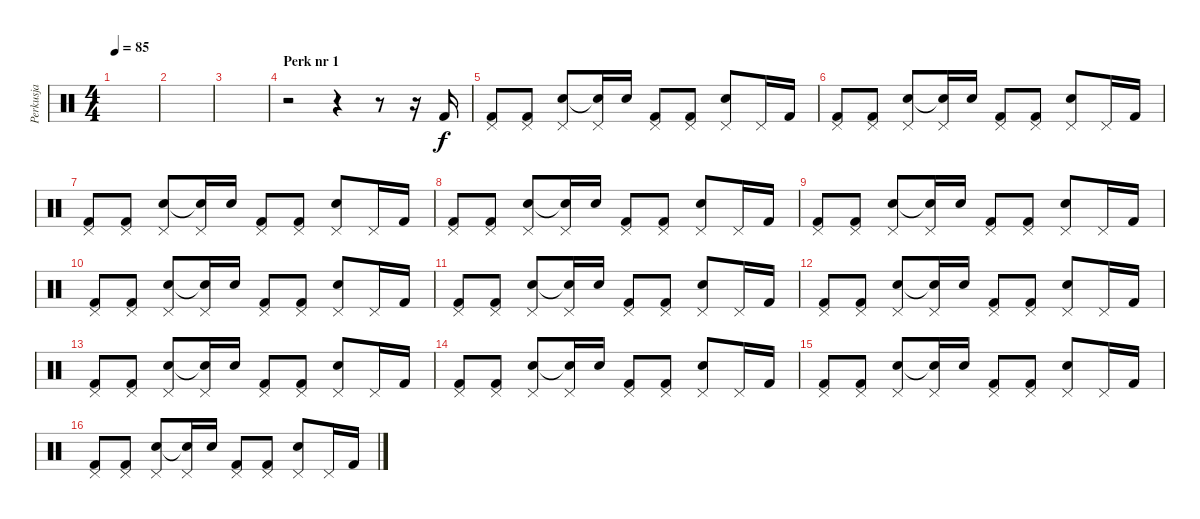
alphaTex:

\track ("Perkusja" "Perkusja") {instrument percussion}
\staff {score}
\articulation defaults
\ts (4 4)
\tempo 85
\clef neutral
\ks c
|
|
|
\section ("" "Perk nr 1")
r.2 r.4 r.8 r.16 "Kick (hit) 2".16 |
("Kick (hit) 2" "Pedal Hi-Hat (hit)").8 ("Kick (hit) 2" "Pedal Hi-Hat (hit)").8 ("Snare (hit) 2" "Pedal Hi-Hat (hit)").8 ("Snare (hit)"{t} "Pedal Hi-Hat (hit)").16 "Snare (hit) 2".16 ("Kick (hit) 2" "Pedal Hi-Hat (hit)").8 ("Kick (hit) 2" "Pedal Hi-Hat (hit)").8 ("Snare (hit) 2" "Pedal Hi-Hat (hit)").8 "Pedal Hi-Hat (hit)".16 "Kick (hit) 2".16 |
("Kick (hit) 2" "Pedal Hi-Hat (hit)").8 ("Kick (hit) 2" "Pedal Hi-Hat (hit)").8 ("Snare (hit) 2" "Pedal Hi-Hat (hit)").8 ("Snare (hit)"{t} "Pedal Hi-Hat (hit)").16 "Snare (hit) 2".16 ("Kick (hit) 2" "Pedal Hi-Hat (hit)").8 ("Kick (hit) 2" "Pedal Hi-Hat (hit)").8 ("Snare (hit) 2" "Pedal Hi-Hat (hit)").8 "Pedal Hi-Hat (hit)".16 "Kick (hit) 2".16 |
("Kick (hit) 2" "Pedal Hi-Hat (hit)").8 ("Kick (hit) 2" "Pedal Hi-Hat (hit)").8 ("Snare (hit) 2" "Pedal Hi-Hat (hit)").8 ("Snare (hit)"{t} "Pedal Hi-Hat (hit)").16 "Snare (hit) 2".16 ("Kick (hit) 2" "Pedal Hi-Hat (hit)").8 ("Kick (hit) 2" "Pedal Hi-Hat (hit)").8 ("Snare (hit) 2" "Pedal Hi-Hat (hit)").8 "Pedal Hi-Hat (hit)".16 "Kick (hit) 2".16 |
("Kick (hit) 2" "Pedal Hi-Hat (hit)").8 ("Kick (hit) 2" "Pedal Hi-Hat (hit)").8 ("Snare (hit) 2" "Pedal Hi-Hat (hit)").8 ("Snare (hit)"{t} "Pedal Hi-Hat (hit)").16 "Snare (hit) 2".16 ("Kick (hit) 2" "Pedal Hi-Hat (hit)").8 ("Kick (hit) 2" "Pedal Hi-Hat (hit)").8 ("Snare (hit) 2" "Pedal Hi-Hat (hit)").8 "Pedal Hi-Hat (hit)".16 "Kick (hit) 2".16 |
("Kick (hit) 2" "Pedal Hi-Hat (hit)").8 ("Kick (hit) 2" "Pedal Hi-Hat (hit)").8 ("Snare (hit) 2" "Pedal Hi-Hat (hit)").8 ("Snare (hit)"{t} "Pedal Hi-Hat (hit)").16 "Snare (hit) 2".16 ("Kick (hit) 2" "Pedal Hi-Hat (hit)").8 ("Kick (hit) 2" "Pedal Hi-Hat (hit)").8 ("Snare (hit) 2" "Pedal Hi-Hat (hit)").8 "Pedal Hi-Hat (hit)".16 "Kick (hit) 2".16 |
("Kick (hit) 2" "Pedal Hi-Hat (hit)").8 ("Kick (hit) 2" "Pedal Hi-Hat (hit)").8 ("Snare (hit) 2" "Pedal Hi-Hat (hit)").8 ("Snare (hit)"{t} "Pedal Hi-Hat (hit)").16 "Snare (hit) 2".16 ("Kick (hit) 2" "Pedal Hi-Hat (hit)").8 ("Kick (hit) 2" "Pedal Hi-Hat (hit)").8 ("Snare (hit) 2" "Pedal Hi-Hat (hit)").8 "Pedal Hi-Hat (hit)".16 "Kick (hit) 2".16 |
("Kick (hit) 2" "Pedal Hi-Hat (hit)").8 ("Kick (hit) 2" "Pedal Hi-Hat (hit)").8 ("Snare (hit) 2" "Pedal Hi-Hat (hit)").8 ("Snare (hit)"{t} "Pedal Hi-Hat (hit)").16 "Snare (hit) 2".16 ("Kick (hit) 2" "Pedal Hi-Hat (hit)").8 ("Kick (hit) 2" "Pedal Hi-Hat (hit)").8 ("Snare (hit) 2" "Pedal Hi-Hat (hit)").8 "Pedal Hi-Hat (hit)".16 "Kick (hit) 2".16 |
("Kick (hit) 2" "Pedal Hi-Hat (hit)").8 ("Kick (hit) 2" "Pedal Hi-Hat (hit)").8 ("Snare (hit) 2" "Pedal Hi-Hat (hit)").8 ("Snare (hit)"{t} "Pedal Hi-Hat (hit)").16 "Snare (hit) 2".16 ("Kick (hit) 2" "Pedal Hi-Hat (hit)").8 ("Kick (hit) 2" "Pedal Hi-Hat (hit)").8 ("Snare (hit) 2" "Pedal Hi-Hat (hit)").8 "Pedal Hi-Hat (hit)".16 "Kick (hit) 2".16 |
("Kick (hit) 2" "Pedal Hi-Hat (hit)").8 ("Kick (hit) 2" "Pedal Hi-Hat (hit)").8 ("Snare (hit) 2" "Pedal Hi-Hat (hit)").8 ("Snare (hit)"{t} "Pedal Hi-Hat (hit)").16 "Snare (hit) 2".16 ("Kick (hit) 2" "Pedal Hi-Hat (hit)").8 ("Kick (hit) 2" "Pedal Hi-Hat (hit)").8 ("Snare (hit) 2" "Pedal Hi-Hat (hit)").8 "Pedal Hi-Hat (hit)".16 "Kick (hit) 2".16 |
("Kick (hit) 2" "Pedal Hi-Hat (hit)").8 ("Kick (hit) 2" "Pedal Hi-Hat (hit)").8 ("Snare (hit) 2" "Pedal Hi-Hat (hit)").8 ("Snare (hit)"{t} "Pedal Hi-Hat (hit)").16 "Snare (hit) 2".16 ("Kick (hit) 2" "Pedal Hi-Hat (hit)").8 ("Kick (hit) 2" "Pedal Hi-Hat (hit)").8 ("Snare (hit) 2" "Pedal Hi-Hat (hit)").8 "Pedal Hi-Hat (hit)".16 "Kick (hit) 2".16 |
("Kick (hit) 2" "Pedal Hi-Hat (hit)").8 ("Kick (hit) 2" "Pedal Hi-Hat (hit)").8 ("Snare (hit) 2" "Pedal Hi-Hat (hit)").8 ("Snare (hit)"{t} "Pedal Hi-Hat (hit)").16 "Snare (hit) 2".16 ("Kick (hit) 2" "Pedal Hi-Hat (hit)").8 ("Kick (hit) 2" "Pedal Hi-Hat (hit)").8 ("Snare (hit) 2" "Pedal Hi-Hat (hit)").8 "Pedal Hi-Hat (hit)".16 "Kick (hit) 2".16 |
("Kick (hit) 2" "Pedal Hi-Hat (hit)").8 ("Kick (hit) 2" "Pedal Hi-Hat (hit)").8 ("Snare (hit) 2" "Pedal Hi-Hat (hit)").8 ("Snare (hit)"{t} "Pedal Hi-Hat (hit)").16 "Snare (hit) 2".16 ("Kick (hit) 2" "Pedal Hi-Hat (hit)").8 ("Kick (hit) 2" "Pedal Hi-Hat (hit)").8 ("Snare (hit) 2" "Pedal Hi-Hat (hit)").8 "Pedal Hi-Hat (hit)".16 "Kick (hit) 2".16
